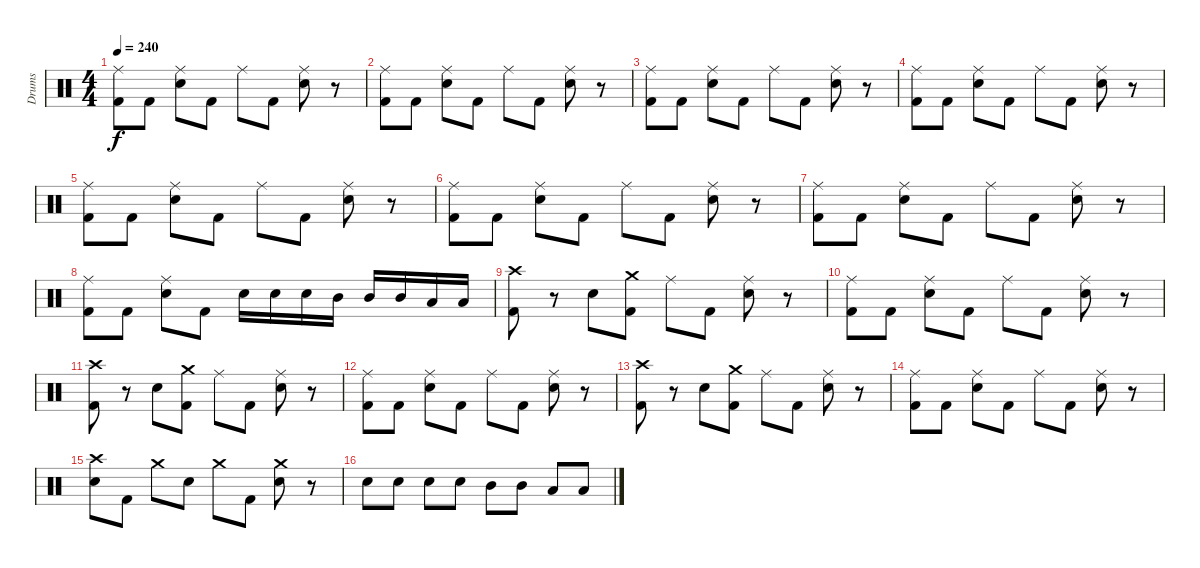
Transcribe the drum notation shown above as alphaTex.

\track ("Drums" "Drums") {instrument percussion}
\staff {score}
\articulation defaults
\ts (4 4)
\tempo 240
\clef neutral
\ks c
("Kick (hit) 2" "Ride (middle)").8{dy f} "Kick (hit) 2".8 ("Electric Snare (hit)" "Ride (middle)").8 "Kick (hit) 2".8 "Ride (middle)".8 "Kick (hit) 2".8 ("Electric Snare (hit)" "Ride (middle)").8 r.8 |
("Kick (hit) 2" "Ride (middle)").8 "Kick (hit) 2".8 ("Electric Snare (hit)" "Ride (middle)").8 "Kick (hit) 2".8 "Ride (middle)".8 "Kick (hit) 2".8 ("Electric Snare (hit)" "Ride (middle)").8 r.8 |
("Kick (hit) 2" "Ride (middle)").8 "Kick (hit) 2".8 ("Electric Snare (hit)" "Ride (middle)").8 "Kick (hit) 2".8 "Ride (middle)".8 "Kick (hit) 2".8 ("Electric Snare (hit)" "Ride (middle)").8 r.8 |
("Kick (hit) 2" "Ride (middle)").8 "Kick (hit) 2".8 ("Electric Snare (hit)" "Ride (middle)").8 "Kick (hit) 2".8 "Ride (middle)".8 "Kick (hit) 2".8 ("Electric Snare (hit)" "Ride (middle)").8 r.8 |
("Kick (hit) 2" "Ride (middle)").8 "Kick (hit) 2".8 ("Electric Snare (hit)" "Ride (middle)").8 "Kick (hit) 2".8 "Ride (middle)".8 "Kick (hit) 2".8 ("Electric Snare (hit)" "Ride (middle)").8 r.8 |
("Kick (hit) 2" "Ride (middle)").8 "Kick (hit) 2".8 ("Electric Snare (hit)" "Ride (middle)").8 "Kick (hit) 2".8 "Ride (middle)".8 "Kick (hit) 2".8 ("Electric Snare (hit)" "Ride (middle)").8 r.8 |
("Kick (hit) 2" "Ride (middle)").8 "Kick (hit) 2".8 ("Electric Snare (hit)" "Ride (middle)").8 "Kick (hit) 2".8 "Ride (middle)".8 "Kick (hit) 2".8 ("Electric Snare (hit)" "Ride (middle)").8 r.8 |
("Kick (hit) 2" "Ride (middle)").8 "Kick (hit) 2".8 ("Electric Snare (hit)" "Ride (middle)").8 "Kick (hit) 2".8 "Electric Snare (hit)".16 "Electric Snare (hit)".16 "Electric Snare (hit)".16 "Mid Tom (hit)".16 "Mid Tom (hit)".16 "Mid Tom (hit)".16 "Low Tom (hit)".16 "Low Tom (hit)".16 |
("Kick (hit) 2" "Crash high (hit)").8 r.8 "Electric Snare (hit)".8 ("Kick (hit) 2" "Crash medium (hit)").8 "Ride (middle)".8 "Kick (hit) 2".8 ("Electric Snare (hit)" "Ride (middle)").8 r.8 |
("Kick (hit) 2" "Ride (middle)").8 "Kick (hit) 2".8 ("Electric Snare (hit)" "Ride (middle)").8 "Kick (hit) 2".8 "Ride (middle)".8 "Kick (hit) 2".8 ("Electric Snare (hit)" "Ride (middle)").8 r.8 |
("Kick (hit) 2" "Crash high (hit)").8 r.8 "Electric Snare (hit)".8 ("Kick (hit) 2" "Crash medium (hit)").8 "Ride (middle)".8 "Kick (hit) 2".8 ("Electric Snare (hit)" "Ride (middle)").8 r.8 |
("Kick (hit) 2" "Ride (middle)").8 "Kick (hit) 2".8 ("Electric Snare (hit)" "Ride (middle)").8 "Kick (hit) 2".8 "Ride (middle)".8 "Kick (hit) 2".8 ("Electric Snare (hit)" "Ride (middle)").8 r.8 |
("Kick (hit) 2" "Crash high (hit)").8 r.8 "Electric Snare (hit)".8 ("Kick (hit) 2" "Crash medium (hit)").8 "Ride (middle)".8 "Kick (hit) 2".8 ("Electric Snare (hit)" "Ride (middle)").8 r.8 |
("Kick (hit) 2" "Ride (middle)").8 "Kick (hit) 2".8 ("Electric Snare (hit)" "Ride (middle)").8 "Kick (hit) 2".8 "Ride (middle)".8 "Kick (hit) 2".8 ("Electric Snare (hit)" "Ride (middle)").8 r.8 |
("Electric Snare (hit)" "Crash high (hit)").8 "Kick (hit) 2".8 "Crash medium (hit)".8 "Electric Snare (hit)".8 "Crash medium (hit)".8 "Kick (hit) 2".8 ("Electric Snare (hit)" "Crash medium (hit)").8 r.8 |
"Electric Snare (hit)".8 "Electric Snare (hit)".8 "Electric Snare (hit)".8 "Electric Snare (hit)".8 "Mid Tom (hit)".8 "Mid Tom (hit)".8 "Low Tom (hit)".8 "Low Tom (hit)".8
